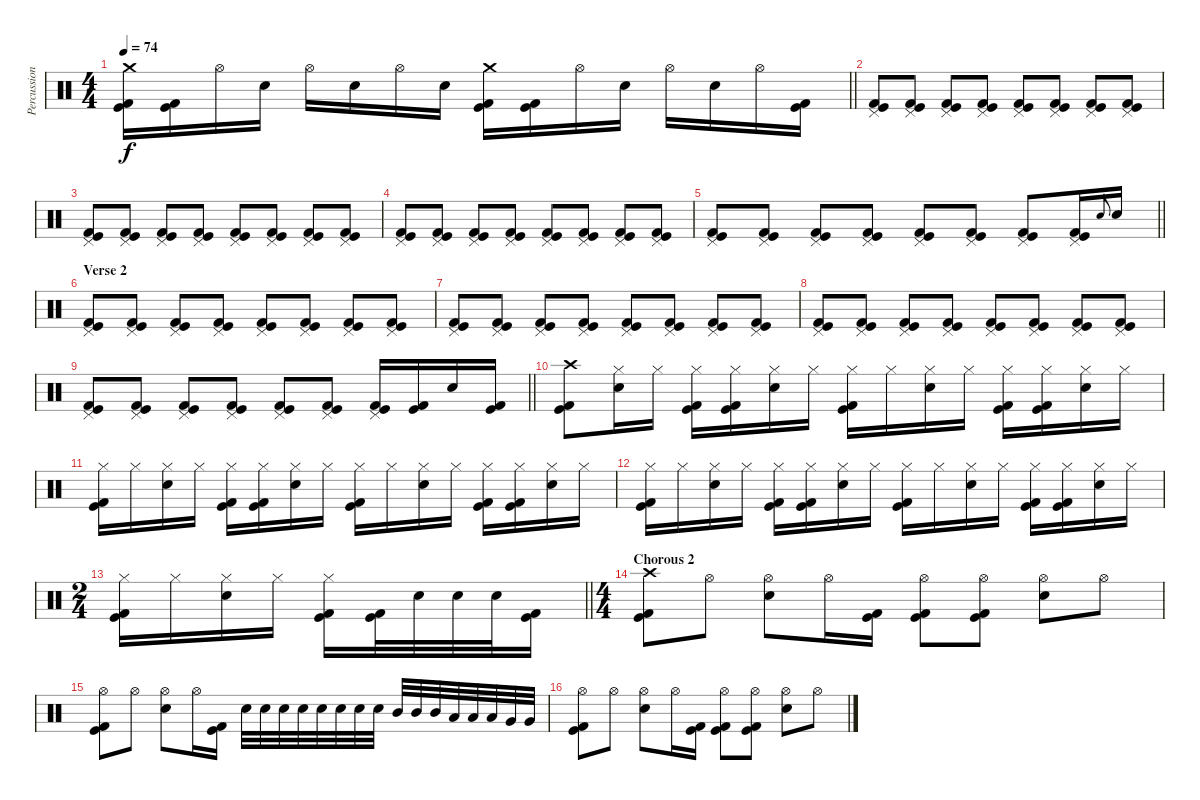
\track ("Percussion" "Percussion") {instrument percussion}
\staff {score}
\articulation defaults
\ts (4 4)
\tempo 74
\clef neutral
\barLineRight lightlight
\ks c
("Crash medium (hit)" "Kick (hit)" "Kick (hit) 2").16{dy f} ("Kick (hit)" "Kick (hit) 2").16 "Hi-Hat (open)".16 "Electric Snare (hit)".16 "Hi-Hat (open)".16 "Electric Snare (hit)".16 "Hi-Hat (open)".16 "Electric Snare (hit)".16 ("Crash medium (hit)" "Kick (hit)" "Kick (hit) 2").16 ("Kick (hit)" "Kick (hit) 2").16 "Hi-Hat (open)".16 "Electric Snare (hit)".16 "Hi-Hat (open)".16 "Electric Snare (hit)".16 "Hi-Hat (open)".16 ("Kick (hit)" "Kick (hit) 2").16 |
\section ("" "")
("Pedal Hi-Hat (hit)" "Kick (hit)" "Kick (hit) 2").8 ("Pedal Hi-Hat (hit)" "Kick (hit)" "Kick (hit) 2").8 ("Pedal Hi-Hat (hit)" "Kick (hit)" "Kick (hit) 2").8 ("Pedal Hi-Hat (hit)" "Kick (hit)" "Kick (hit) 2").8 ("Pedal Hi-Hat (hit)" "Kick (hit)" "Kick (hit) 2").8 ("Pedal Hi-Hat (hit)" "Kick (hit)" "Kick (hit) 2").8 ("Pedal Hi-Hat (hit)" "Kick (hit)" "Kick (hit) 2").8 ("Pedal Hi-Hat (hit)" "Kick (hit)" "Kick (hit) 2").8 |
("Pedal Hi-Hat (hit)" "Kick (hit)" "Kick (hit) 2").8 ("Pedal Hi-Hat (hit)" "Kick (hit)" "Kick (hit) 2").8 ("Pedal Hi-Hat (hit)" "Kick (hit)" "Kick (hit) 2").8 ("Pedal Hi-Hat (hit)" "Kick (hit)" "Kick (hit) 2").8 ("Pedal Hi-Hat (hit)" "Kick (hit)" "Kick (hit) 2").8 ("Pedal Hi-Hat (hit)" "Kick (hit)" "Kick (hit) 2").8 ("Pedal Hi-Hat (hit)" "Kick (hit)" "Kick (hit) 2").8 ("Pedal Hi-Hat (hit)" "Kick (hit)" "Kick (hit) 2").8 |
("Pedal Hi-Hat (hit)" "Kick (hit)" "Kick (hit) 2").8 ("Pedal Hi-Hat (hit)" "Kick (hit)" "Kick (hit) 2").8 ("Pedal Hi-Hat (hit)" "Kick (hit)" "Kick (hit) 2").8 ("Pedal Hi-Hat (hit)" "Kick (hit)" "Kick (hit) 2").8 ("Pedal Hi-Hat (hit)" "Kick (hit)" "Kick (hit) 2").8 ("Pedal Hi-Hat (hit)" "Kick (hit)" "Kick (hit) 2").8 ("Pedal Hi-Hat (hit)" "Kick (hit)" "Kick (hit) 2").8 ("Pedal Hi-Hat (hit)" "Kick (hit)" "Kick (hit) 2").8 |
\barLineRight lightlight
("Pedal Hi-Hat (hit)" "Kick (hit)" "Kick (hit) 2").8 ("Pedal Hi-Hat (hit)" "Kick (hit)" "Kick (hit) 2").8 ("Pedal Hi-Hat (hit)" "Kick (hit)" "Kick (hit) 2").8 ("Pedal Hi-Hat (hit)" "Kick (hit)" "Kick (hit) 2").8 ("Pedal Hi-Hat (hit)" "Kick (hit)" "Kick (hit) 2").8 ("Pedal Hi-Hat (hit)" "Kick (hit)" "Kick (hit) 2").8 ("Pedal Hi-Hat (hit)" "Kick (hit)" "Kick (hit) 2").8 ("Pedal Hi-Hat (hit)" "Kick (hit)" "Kick (hit) 2").16 "Electric Snare (hit)".8{gr onbeat} "Electric Snare (hit)".16 |
\section ("" "Verse 2")
("Pedal Hi-Hat (hit)" "Kick (hit)" "Kick (hit) 2").8 ("Pedal Hi-Hat (hit)" "Kick (hit)" "Kick (hit) 2").8 ("Pedal Hi-Hat (hit)" "Kick (hit)" "Kick (hit) 2").8 ("Pedal Hi-Hat (hit)" "Kick (hit)" "Kick (hit) 2").8 ("Pedal Hi-Hat (hit)" "Kick (hit)" "Kick (hit) 2").8 ("Pedal Hi-Hat (hit)" "Kick (hit)" "Kick (hit) 2").8 ("Pedal Hi-Hat (hit)" "Kick (hit)" "Kick (hit) 2").8 ("Pedal Hi-Hat (hit)" "Kick (hit)" "Kick (hit) 2").8 |
("Pedal Hi-Hat (hit)" "Kick (hit)" "Kick (hit) 2").8 ("Pedal Hi-Hat (hit)" "Kick (hit)" "Kick (hit) 2").8 ("Pedal Hi-Hat (hit)" "Kick (hit)" "Kick (hit) 2").8 ("Pedal Hi-Hat (hit)" "Kick (hit)" "Kick (hit) 2").8 ("Pedal Hi-Hat (hit)" "Kick (hit)" "Kick (hit) 2").8 ("Pedal Hi-Hat (hit)" "Kick (hit)" "Kick (hit) 2").8 ("Pedal Hi-Hat (hit)" "Kick (hit)" "Kick (hit) 2").8 ("Pedal Hi-Hat (hit)" "Kick (hit)" "Kick (hit) 2").8 |
("Pedal Hi-Hat (hit)" "Kick (hit)" "Kick (hit) 2").8 ("Pedal Hi-Hat (hit)" "Kick (hit)" "Kick (hit) 2").8 ("Pedal Hi-Hat (hit)" "Kick (hit)" "Kick (hit) 2").8 ("Pedal Hi-Hat (hit)" "Kick (hit)" "Kick (hit) 2").8 ("Pedal Hi-Hat (hit)" "Kick (hit)" "Kick (hit) 2").8 ("Pedal Hi-Hat (hit)" "Kick (hit)" "Kick (hit) 2").8 ("Pedal Hi-Hat (hit)" "Kick (hit)" "Kick (hit) 2").8 ("Pedal Hi-Hat (hit)" "Kick (hit)" "Kick (hit) 2").8 |
\barLineRight lightlight
("Pedal Hi-Hat (hit)" "Kick (hit)" "Kick (hit) 2").8 ("Pedal Hi-Hat (hit)" "Kick (hit)" "Kick (hit) 2").8 ("Pedal Hi-Hat (hit)" "Kick (hit)" "Kick (hit) 2").8 ("Pedal Hi-Hat (hit)" "Kick (hit)" "Kick (hit) 2").8 ("Pedal Hi-Hat (hit)" "Kick (hit)" "Kick (hit) 2").8 ("Pedal Hi-Hat (hit)" "Kick (hit)" "Kick (hit) 2").8 ("Pedal Hi-Hat (hit)" "Kick (hit)" "Kick (hit) 2").16 ("Kick (hit)" "Kick (hit) 2").16 "Electric Snare (hit)".16 ("Kick (hit)" "Kick (hit) 2").16 |
\section ("" "")
("Crash high (hit)" "Kick (hit)" "Kick (hit) 2").8 ("Hi-Hat (closed)" "Electric Snare (hit)").16 "Hi-Hat (closed)".16 ("Hi-Hat (closed)" "Kick (hit)" "Kick (hit) 2").16 ("Hi-Hat (closed)" "Kick (hit)" "Kick (hit) 2").16 ("Hi-Hat (closed)" "Electric Snare (hit)").16 "Hi-Hat (closed)".16 ("Hi-Hat (closed)" "Kick (hit)" "Kick (hit) 2").16 "Hi-Hat (closed)".16 ("Hi-Hat (closed)" "Electric Snare (hit)").16 "Hi-Hat (closed)".16 ("Hi-Hat (closed)" "Kick (hit)" "Kick (hit) 2").16 ("Hi-Hat (closed)" "Kick (hit)" "Kick (hit) 2").16 ("Hi-Hat (closed)" "Electric Snare (hit)").16 "Hi-Hat (closed)".16 |
("Hi-Hat (closed)" "Kick (hit)" "Kick (hit) 2").16 "Hi-Hat (closed)".16 ("Hi-Hat (closed)" "Electric Snare (hit)").16 "Hi-Hat (closed)".16 ("Hi-Hat (closed)" "Kick (hit)" "Kick (hit) 2").16 ("Hi-Hat (closed)" "Kick (hit)" "Kick (hit) 2").16 ("Hi-Hat (closed)" "Electric Snare (hit)").16 "Hi-Hat (closed)".16 ("Hi-Hat (closed)" "Kick (hit)" "Kick (hit) 2").16 "Hi-Hat (closed)".16 ("Hi-Hat (closed)" "Electric Snare (hit)").16 "Hi-Hat (closed)".16 ("Hi-Hat (closed)" "Kick (hit)" "Kick (hit) 2").16 ("Hi-Hat (closed)" "Kick (hit)" "Kick (hit) 2").16 ("Hi-Hat (closed)" "Electric Snare (hit)").16 "Hi-Hat (closed)".16 |
("Hi-Hat (closed)" "Kick (hit)" "Kick (hit) 2").16 "Hi-Hat (closed)".16 ("Hi-Hat (closed)" "Electric Snare (hit)").16 "Hi-Hat (closed)".16 ("Hi-Hat (closed)" "Kick (hit)" "Kick (hit) 2").16 ("Hi-Hat (closed)" "Kick (hit)" "Kick (hit) 2").16 ("Hi-Hat (closed)" "Electric Snare (hit)").16 "Hi-Hat (closed)".16 ("Hi-Hat (closed)" "Kick (hit)" "Kick (hit) 2").16 "Hi-Hat (closed)".16 ("Hi-Hat (closed)" "Electric Snare (hit)").16 "Hi-Hat (closed)".16 ("Hi-Hat (closed)" "Kick (hit)" "Kick (hit) 2").16 ("Hi-Hat (closed)" "Kick (hit)" "Kick (hit) 2").16 ("Hi-Hat (closed)" "Electric Snare (hit)").16 "Hi-Hat (closed)".16 |
\ts (2 4)
\barLineRight lightlight
("Hi-Hat (closed)" "Kick (hit)" "Kick (hit) 2").16 "Hi-Hat (closed)".16 ("Hi-Hat (closed)" "Electric Snare (hit)").16 "Hi-Hat (closed)".16 ("Hi-Hat (closed)" "Kick (hit)" "Kick (hit) 2").16 ("Kick (hit)" "Kick (hit) 2").32 "Electric Snare (hit)".32 "Electric Snare (hit)".32 "Electric Snare (hit)".32 ("Kick (hit)" "Kick (hit) 2").16 |
\ts (4 4)
\section ("" "Chorous 2")
("Crash high (hit)" "Kick (hit)" "Kick (hit) 2").8 "Hi-Hat (open)".8 ("Hi-Hat (open)" "Electric Snare (hit)").8 "Hi-Hat (open)".16 ("Kick (hit)" "Kick (hit) 2").16 ("Hi-Hat (open)" "Kick (hit)" "Kick (hit) 2").8 ("Hi-Hat (open)" "Kick (hit)" "Kick (hit) 2").8 ("Hi-Hat (open)" "Electric Snare (hit)").8 "Hi-Hat (open)".8 |
("Hi-Hat (open)" "Kick (hit)" "Kick (hit) 2").8 "Hi-Hat (open)".8 ("Hi-Hat (open)" "Electric Snare (hit)").8 "Hi-Hat (open)".16 ("Kick (hit)" "Kick (hit) 2").16 "Electric Snare (hit)".32 "Electric Snare (hit)".32 "Electric Snare (hit)".32 "Electric Snare (hit)".32 "Electric Snare (hit)".32 "Electric Snare (hit)".32 "Electric Snare (hit)".32 "Electric Snare (hit)".32 "Mid Tom (hit)".32 "Mid Tom (hit)".32 "Mid Tom (hit)".32 "Low Tom (hit)".32 "Low Tom (hit)".32 "Low Tom (hit)".32 "Very Low Tom (hit)".32 "Very Low Tom (hit)".32 |
("Hi-Hat (open)" "Kick (hit)" "Kick (hit) 2").8 "Hi-Hat (open)".8 ("Hi-Hat (open)" "Electric Snare (hit)").8 "Hi-Hat (open)".16 ("Kick (hit)" "Kick (hit) 2").16 ("Hi-Hat (open)" "Kick (hit)" "Kick (hit) 2").8 ("Hi-Hat (open)" "Kick (hit)" "Kick (hit) 2").8 ("Hi-Hat (open)" "Electric Snare (hit)").8 "Hi-Hat (open)".8
